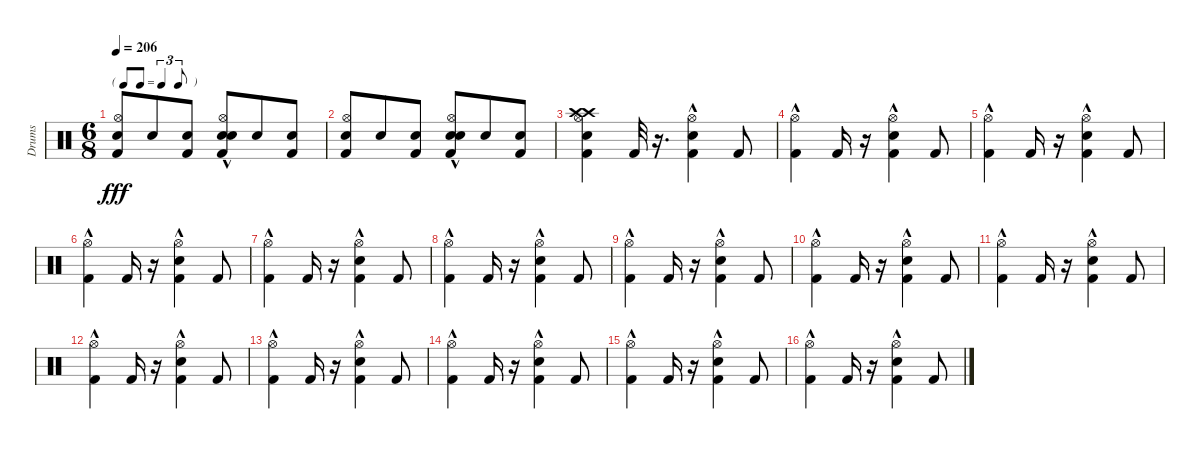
\track ("Drums" "Drums") {instrument percussion}
\staff {score}
\articulation defaults
\ts (6 8)
\tf triplet8th
\tempo 206
\clef neutral
\ks c
("Electric Snare (hit)" "Hi-Hat (open)" "Kick (hit) 2").8{dy fff} "Electric Snare (hit)".8 ("Electric Snare (hit)" "Kick (hit) 2").8 ("Electric Snare (hit)" "Hi-Hat (open)" "Snare (hit) 2"{hac} "Kick (hit) 2").8 "Electric Snare (hit)".8 ("Electric Snare (hit)" "Kick (hit) 2").8 |
("Electric Snare (hit)" "Hi-Hat (open)" "Kick (hit) 2").8 "Electric Snare (hit)".8 ("Electric Snare (hit)" "Kick (hit) 2").8 ("Electric Snare (hit)" "Hi-Hat (open)" "Snare (hit) 2"{hac} "Kick (hit) 2").8 "Electric Snare (hit)".8 ("Electric Snare (hit)" "Kick (hit) 2").8 |
("Crash high (hit)" "Electric Snare (hit)" "Hi-Hat (open)" "Kick (hit) 2" "Crash high (hit)").4 "Kick (hit) 2".32 r.16{d} ("Hi-Hat (open)" "Snare (hit) 2"{hac} "Kick (hit) 2").4 "Kick (hit) 2".8 |
("Hi-Hat (open)" "Kick (hit) 2"{hac}).4 "Kick (hit) 2".16 r.16 ("Hi-Hat (open)" "Snare (hit) 2"{hac} "Kick (hit) 2").4 "Kick (hit) 2".8 |
("Hi-Hat (open)" "Kick (hit) 2"{hac}).4 "Kick (hit) 2".16 r.16 ("Hi-Hat (open)" "Snare (hit) 2"{hac} "Kick (hit) 2").4 "Kick (hit) 2".8 |
("Hi-Hat (open)" "Kick (hit) 2"{hac}).4 "Kick (hit) 2".16 r.16 ("Hi-Hat (open)" "Snare (hit) 2"{hac} "Kick (hit) 2").4 "Kick (hit) 2".8 |
("Hi-Hat (open)" "Kick (hit) 2"{hac}).4 "Kick (hit) 2".16 r.16 ("Hi-Hat (open)" "Snare (hit) 2"{hac} "Kick (hit) 2").4 "Kick (hit) 2".8 |
("Hi-Hat (open)" "Kick (hit) 2"{hac}).4 "Kick (hit) 2".16 r.16 ("Hi-Hat (open)" "Snare (hit) 2"{hac} "Kick (hit) 2").4 "Kick (hit) 2".8 |
("Hi-Hat (open)" "Kick (hit) 2"{hac}).4 "Kick (hit) 2".16 r.16 ("Hi-Hat (open)" "Snare (hit) 2"{hac} "Kick (hit) 2").4 "Kick (hit) 2".8 |
("Hi-Hat (open)" "Kick (hit) 2"{hac}).4 "Kick (hit) 2".16 r.16 ("Hi-Hat (open)" "Snare (hit) 2"{hac} "Kick (hit) 2").4 "Kick (hit) 2".8 |
("Hi-Hat (open)" "Kick (hit) 2"{hac}).4 "Kick (hit) 2".16 r.16 ("Hi-Hat (open)" "Snare (hit) 2"{hac} "Kick (hit) 2").4 "Kick (hit) 2".8 |
("Hi-Hat (open)" "Kick (hit) 2"{hac}).4 "Kick (hit) 2".16 r.16 ("Hi-Hat (open)" "Snare (hit) 2"{hac} "Kick (hit) 2").4 "Kick (hit) 2".8 |
("Hi-Hat (open)" "Kick (hit) 2"{hac}).4 "Kick (hit) 2".16 r.16 ("Hi-Hat (open)" "Snare (hit) 2"{hac} "Kick (hit) 2").4 "Kick (hit) 2".8 |
("Hi-Hat (open)" "Kick (hit) 2"{hac}).4 "Kick (hit) 2".16 r.16 ("Hi-Hat (open)" "Snare (hit) 2"{hac} "Kick (hit) 2").4 "Kick (hit) 2".8 |
("Hi-Hat (open)" "Kick (hit) 2"{hac}).4 "Kick (hit) 2".16 r.16 ("Hi-Hat (open)" "Snare (hit) 2"{hac} "Kick (hit) 2").4 "Kick (hit) 2".8 |
("Hi-Hat (open)" "Kick (hit) 2"{hac}).4 "Kick (hit) 2".16 r.16 ("Hi-Hat (open)" "Snare (hit) 2"{hac} "Kick (hit) 2").4 "Kick (hit) 2".8
